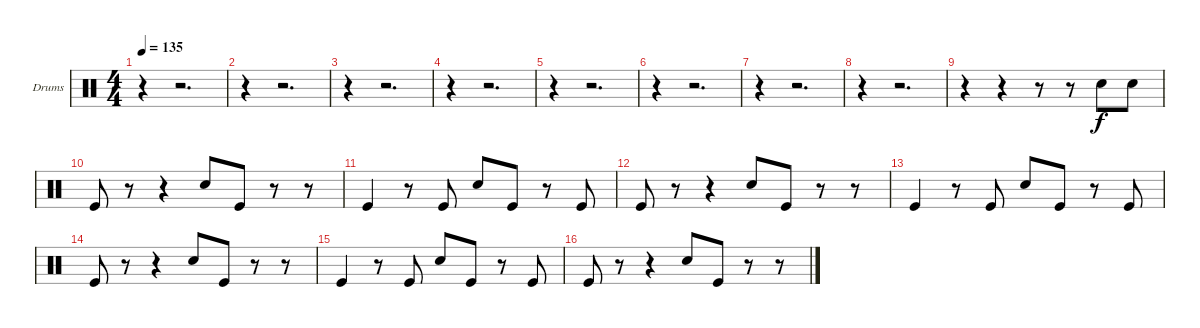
\bracketExtendMode groupsimilarinstruments
\firstSystemTrackNameOrientation horizontal
\otherSystemsTrackNameOrientation horizontal
\track ("Drumkit" "Drums") {instrument percussion}
\staff {score}
\articulation defaults
\ts (4 4)
\beaming (8 2 2 2 2)
\tempo 135
\clef neutral
\ks c
r.4{dy f} r.2{d} |
r.4 r.2{d} |
r.4 r.2{d} |
r.4 r.2{d} |
r.4 r.2{d} |
r.4 r.2{d} |
r.4 r.2{d} |
r.4 r.2{d} |
r.4 r.4 r.8 r.8 "Snare (hit) 2".8 "Snare (hit) 2".8 |
"Kick (hit)".8 r.8 r.4 "Snare (hit) 2".8 "Kick (hit)".8 r.8 r.8 |
"Kick (hit)".4 r.8 "Kick (hit)".8 "Snare (hit) 2".8 "Kick (hit)".8 r.8 "Kick (hit)".8 |
"Kick (hit)".8 r.8 r.4 "Snare (hit) 2".8 "Kick (hit)".8 r.8 r.8 |
"Kick (hit)".4 r.8 "Kick (hit)".8 "Snare (hit) 2".8 "Kick (hit)".8 r.8 "Kick (hit)".8 |
"Kick (hit)".8 r.8 r.4 "Snare (hit) 2".8 "Kick (hit)".8 r.8 r.8 |
"Kick (hit)".4 r.8 "Kick (hit)".8 "Snare (hit) 2".8 "Kick (hit)".8 r.8 "Kick (hit)".8 |
"Kick (hit)".8 r.8 r.4 "Snare (hit) 2".8 "Kick (hit)".8 r.8 r.8
